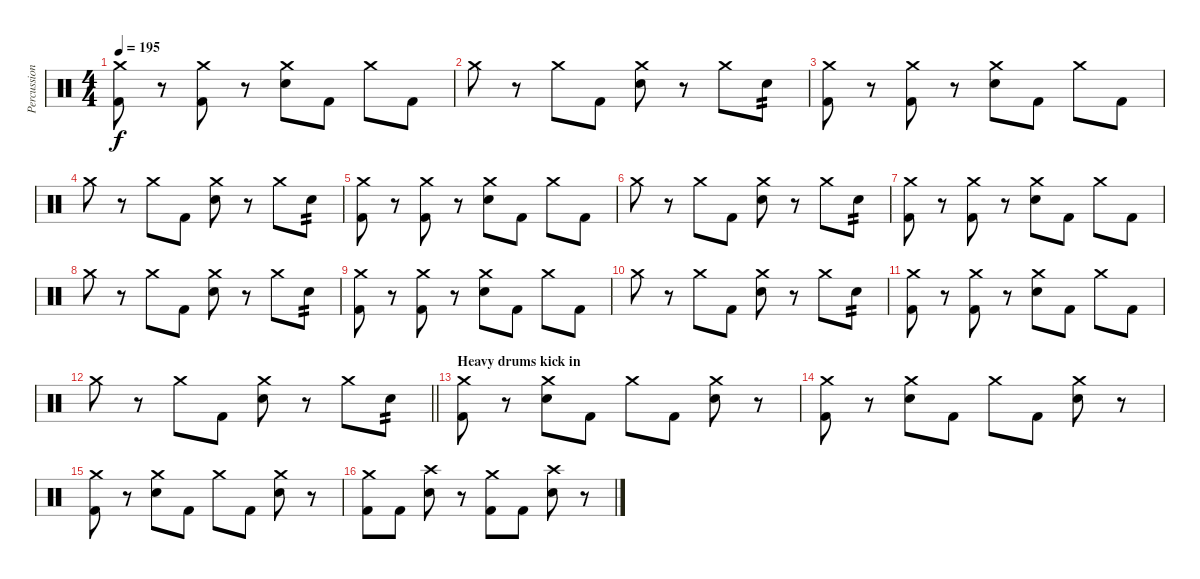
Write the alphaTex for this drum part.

\track ("Percussion" "Percussion") {instrument percussion}
\staff {score}
\articulation defaults
\ts (4 4)
\tempo 195
\clef neutral
\ks c
("Crash medium (hit)" "Kick (hit) 2").8{dy f} r.8 ("Crash medium (hit)" "Kick (hit) 2").8 r.8 ("Crash medium (hit)" "Electric Snare (hit)").8 "Kick (hit) 2".8 "Crash medium (hit)".8 "Kick (hit) 2".8 |
"Crash medium (hit)".8 r.8 "Crash medium (hit)".8 "Kick (hit) 2".8 ("Crash medium (hit)" "Electric Snare (hit)").8 r.8 "Crash medium (hit)".8 "Electric Snare (hit)".8{tp 2} |
("Crash medium (hit)" "Kick (hit) 2").8 r.8 ("Crash medium (hit)" "Kick (hit) 2").8 r.8 ("Crash medium (hit)" "Electric Snare (hit)").8 "Kick (hit) 2".8 "Crash medium (hit)".8 "Kick (hit) 2".8 |
"Crash medium (hit)".8 r.8 "Crash medium (hit)".8 "Kick (hit) 2".8 ("Crash medium (hit)" "Electric Snare (hit)").8 r.8 "Crash medium (hit)".8 "Electric Snare (hit)".8{tp 2} |
("Crash medium (hit)" "Kick (hit) 2").8 r.8 ("Crash medium (hit)" "Kick (hit) 2").8 r.8 ("Crash medium (hit)" "Electric Snare (hit)").8 "Kick (hit) 2".8 "Crash medium (hit)".8 "Kick (hit) 2".8 |
"Crash medium (hit)".8 r.8 "Crash medium (hit)".8 "Kick (hit) 2".8 ("Crash medium (hit)" "Electric Snare (hit)").8 r.8 "Crash medium (hit)".8 "Electric Snare (hit)".8{tp 2} |
("Crash medium (hit)" "Kick (hit) 2").8 r.8 ("Crash medium (hit)" "Kick (hit) 2").8 r.8 ("Crash medium (hit)" "Electric Snare (hit)").8 "Kick (hit) 2".8 "Crash medium (hit)".8 "Kick (hit) 2".8 |
"Crash medium (hit)".8 r.8 "Crash medium (hit)".8 "Kick (hit) 2".8 ("Crash medium (hit)" "Electric Snare (hit)").8 r.8 "Crash medium (hit)".8 "Electric Snare (hit)".8{tp 2} |
("Crash medium (hit)" "Kick (hit) 2").8 r.8 ("Crash medium (hit)" "Kick (hit) 2").8 r.8 ("Crash medium (hit)" "Electric Snare (hit)").8 "Kick (hit) 2".8 "Crash medium (hit)".8 "Kick (hit) 2".8 |
"Crash medium (hit)".8 r.8 "Crash medium (hit)".8 "Kick (hit) 2".8 ("Crash medium (hit)" "Electric Snare (hit)").8 r.8 "Crash medium (hit)".8 "Electric Snare (hit)".8{tp 2} |
("Crash medium (hit)" "Kick (hit) 2").8 r.8 ("Crash medium (hit)" "Kick (hit) 2").8 r.8 ("Crash medium (hit)" "Electric Snare (hit)").8 "Kick (hit) 2".8 "Crash medium (hit)".8 "Kick (hit) 2".8 |
\barLineRight lightlight "Crash medium (hit)".8
r.8 "Crash medium (hit)".8 "Kick (hit) 2".8 ("Crash medium (hit)" "Electric Snare (hit)").8 r.8 "Crash medium (hit)".8 "Electric Snare (hit)".8{tp 2} |
\section ("" "Heavy drums kick in")
("Crash medium (hit)" "Kick (hit) 2").8 r.8 ("Crash medium (hit)" "Electric Snare (hit)").8 "Kick (hit) 2".8 "Crash medium (hit)".8 "Kick (hit) 2".8 ("Crash medium (hit)" "Electric Snare (hit)").8 r.8 |
("Crash medium (hit)" "Kick (hit) 2").8 r.8 ("Crash medium (hit)" "Electric Snare (hit)").8 "Kick (hit) 2".8 "Crash medium (hit)".8 "Kick (hit) 2".8 ("Crash medium (hit)" "Electric Snare (hit)").8 r.8 |
("Crash medium (hit)" "Kick (hit) 2").8 r.8 ("Crash medium (hit)" "Electric Snare (hit)").8 "Kick (hit) 2".8 "Crash medium (hit)".8 "Kick (hit) 2".8 ("Crash medium (hit)" "Electric Snare (hit)").8 r.8 |
("Crash medium (hit)" "Kick (hit) 2").8 "Kick (hit) 2".8 ("Crash high (hit)" "Electric Snare (hit)").8 r.8 ("Crash medium (hit)" "Kick (hit) 2").8 "Kick (hit) 2".8 ("Crash high (hit)" "Electric Snare (hit)").8 r.8
